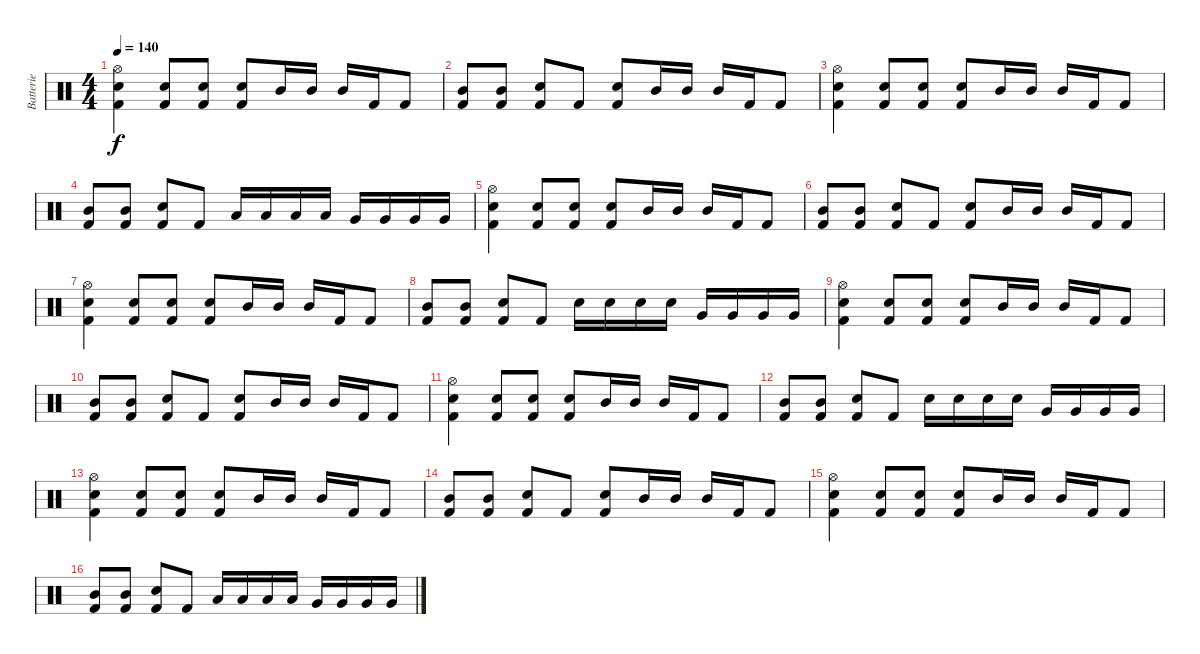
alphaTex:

\track ("Batterie" "Batterie") {instrument percussion}
\staff {score}
\articulation defaults
\ts (4 4)
\tempo 140
\clef neutral
\ks c
("Hi-Hat (open)" "Electric Snare (hit)" "Kick (hit) 2").4{dy f} ("Snare (hit) 2" "Kick (hit) 2").8 ("Electric Snare (hit)" "Kick (hit) 2").8 ("Electric Snare (hit)" "Kick (hit) 2").8 "Mid Tom (hit)".16 "Mid Tom (hit)".16 "Mid Tom (hit)".16 "Kick (hit) 2".16 "Kick (hit) 2".8 |
("Mid Tom (hit)" "Kick (hit) 2").8 ("Mid Tom (hit)" "Kick (hit) 2").8 ("Electric Snare (hit)" "Kick (hit) 2").8 "Kick (hit) 2".8 ("Electric Snare (hit)" "Kick (hit) 2").8 "Mid Tom (hit)".16 "Mid Tom (hit)".16 "Mid Tom (hit)".16 "Kick (hit) 2".16 "Kick (hit) 2".8 |
("Hi-Hat (open)" "Electric Snare (hit)" "Kick (hit) 2").4 ("Snare (hit) 2" "Kick (hit) 2").8 ("Electric Snare (hit)" "Kick (hit) 2").8 ("Electric Snare (hit)" "Kick (hit) 2").8 "Mid Tom (hit)".16 "Mid Tom (hit)".16 "Mid Tom (hit)".16 "Kick (hit) 2".16 "Kick (hit) 2".8 |
("Mid Tom (hit)" "Kick (hit) 2").8 ("Mid Tom (hit)" "Kick (hit) 2").8 ("Electric Snare (hit)" "Kick (hit) 2").8 "Kick (hit) 2".8 "Low Tom (hit)".16 "Low Tom (hit)".16 "Low Tom (hit)".16 "Low Tom (hit)".16 "Very Low Tom (hit)".16 "Very Low Tom (hit)".16 "Very Low Tom (hit)".16 "Very Low Tom (hit)".16 |
("Hi-Hat (open)" "Electric Snare (hit)" "Kick (hit) 2").4 ("Snare (hit) 2" "Kick (hit) 2").8 ("Electric Snare (hit)" "Kick (hit) 2").8 ("Electric Snare (hit)" "Kick (hit) 2").8 "Mid Tom (hit)".16 "Mid Tom (hit)".16 "Mid Tom (hit)".16 "Kick (hit) 2".16 "Kick (hit) 2".8 |
("Mid Tom (hit)" "Kick (hit) 2").8 ("Mid Tom (hit)" "Kick (hit) 2").8 ("Electric Snare (hit)" "Kick (hit) 2").8 "Kick (hit) 2".8 ("Electric Snare (hit)" "Kick (hit) 2").8 "Mid Tom (hit)".16 "Mid Tom (hit)".16 "Mid Tom (hit)".16 "Kick (hit) 2".16 "Kick (hit) 2".8 |
("Hi-Hat (open)" "Electric Snare (hit)" "Kick (hit) 2").4 ("Snare (hit) 2" "Kick (hit) 2").8 ("Electric Snare (hit)" "Kick (hit) 2").8 ("Electric Snare (hit)" "Kick (hit) 2").8 "Mid Tom (hit)".16 "Mid Tom (hit)".16 "Mid Tom (hit)".16 "Kick (hit) 2".16 "Kick (hit) 2".8 |
("Mid Tom (hit)" "Kick (hit) 2").8 ("Mid Tom (hit)" "Kick (hit) 2").8 ("Electric Snare (hit)" "Kick (hit) 2").8 "Kick (hit) 2".8 "Electric Snare (hit)".16 "Electric Snare (hit)".16 "Electric Snare (hit)".16 "Electric Snare (hit)".16 "Very Low Tom (hit)".16 "Very Low Tom (hit)".16 "Very Low Tom (hit)".16 "Very Low Tom (hit)".16 |
("Hi-Hat (open)" "Electric Snare (hit)" "Kick (hit) 2").4 ("Snare (hit) 2" "Kick (hit) 2").8 ("Electric Snare (hit)" "Kick (hit) 2").8 ("Electric Snare (hit)" "Kick (hit) 2").8 "Mid Tom (hit)".16 "Mid Tom (hit)".16 "Mid Tom (hit)".16 "Kick (hit) 2".16 "Kick (hit) 2".8 |
("Mid Tom (hit)" "Kick (hit) 2").8 ("Mid Tom (hit)" "Kick (hit) 2").8 ("Electric Snare (hit)" "Kick (hit) 2").8 "Kick (hit) 2".8 ("Electric Snare (hit)" "Kick (hit) 2").8 "Mid Tom (hit)".16 "Mid Tom (hit)".16 "Mid Tom (hit)".16 "Kick (hit) 2".16 "Kick (hit) 2".8 |
("Hi-Hat (open)" "Electric Snare (hit)" "Kick (hit) 2").4 ("Snare (hit) 2" "Kick (hit) 2").8 ("Electric Snare (hit)" "Kick (hit) 2").8 ("Electric Snare (hit)" "Kick (hit) 2").8 "Mid Tom (hit)".16 "Mid Tom (hit)".16 "Mid Tom (hit)".16 "Kick (hit) 2".16 "Kick (hit) 2".8 |
("Mid Tom (hit)" "Kick (hit) 2").8 ("Mid Tom (hit)" "Kick (hit) 2").8 ("Electric Snare (hit)" "Kick (hit) 2").8 "Kick (hit) 2".8 "Electric Snare (hit)".16 "Electric Snare (hit)".16 "Electric Snare (hit)".16 "Electric Snare (hit)".16 "Very Low Tom (hit)".16 "Very Low Tom (hit)".16 "Very Low Tom (hit)".16 "Very Low Tom (hit)".16 |
("Hi-Hat (open)" "Electric Snare (hit)" "Kick (hit) 2").4 ("Snare (hit) 2" "Kick (hit) 2").8 ("Electric Snare (hit)" "Kick (hit) 2").8 ("Electric Snare (hit)" "Kick (hit) 2").8 "Mid Tom (hit)".16 "Mid Tom (hit)".16 "Mid Tom (hit)".16 "Kick (hit) 2".16 "Kick (hit) 2".8 |
("Mid Tom (hit)" "Kick (hit) 2").8 ("Mid Tom (hit)" "Kick (hit) 2").8 ("Electric Snare (hit)" "Kick (hit) 2").8 "Kick (hit) 2".8 ("Electric Snare (hit)" "Kick (hit) 2").8 "Mid Tom (hit)".16 "Mid Tom (hit)".16 "Mid Tom (hit)".16 "Kick (hit) 2".16 "Kick (hit) 2".8 |
("Hi-Hat (open)" "Electric Snare (hit)" "Kick (hit) 2").4 ("Snare (hit) 2" "Kick (hit) 2").8 ("Electric Snare (hit)" "Kick (hit) 2").8 ("Electric Snare (hit)" "Kick (hit) 2").8 "Mid Tom (hit)".16 "Mid Tom (hit)".16 "Mid Tom (hit)".16 "Kick (hit) 2".16 "Kick (hit) 2".8 |
("Mid Tom (hit)" "Kick (hit) 2").8 ("Mid Tom (hit)" "Kick (hit) 2").8 ("Electric Snare (hit)" "Kick (hit) 2").8 "Kick (hit) 2".8 "Low Tom (hit)".16 "Low Tom (hit)".16 "Low Tom (hit)".16 "Low Tom (hit)".16 "Very Low Tom (hit)".16 "Very Low Tom (hit)".16 "Very Low Tom (hit)".16 "Very Low Tom (hit)".16
